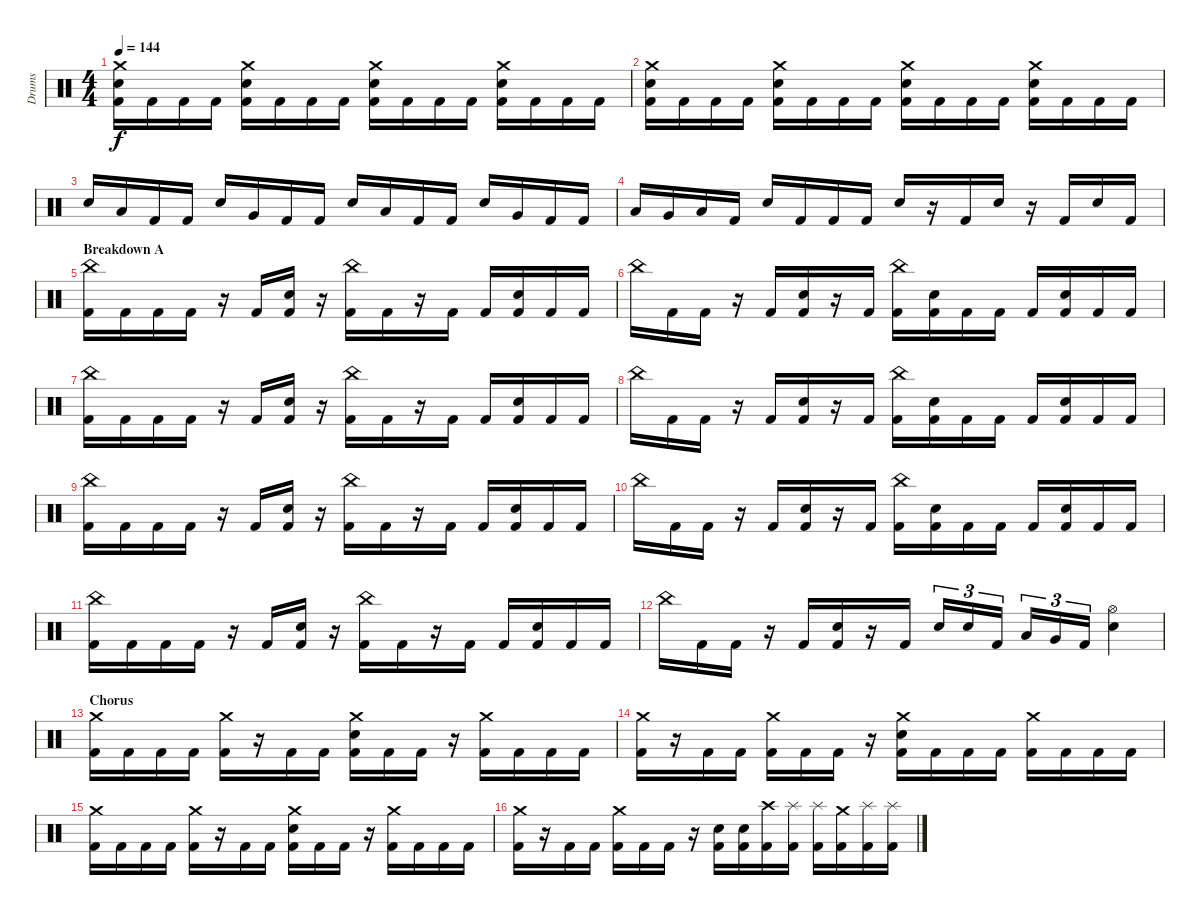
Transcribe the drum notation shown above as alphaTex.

\track ("Drums" "Drums") {instrument percussion}
\staff {score}
\articulation defaults
\ts (4 4)
\tempo 144
\clef neutral
\ks c
("Crash medium (hit)" "Electric Snare (hit)" "Kick (hit) 2").16{dy f} "Kick (hit) 2".16 "Kick (hit) 2".16 "Kick (hit) 2".16 ("Crash medium (hit)" "Electric Snare (hit)" "Kick (hit) 2").16 "Kick (hit) 2".16 "Kick (hit) 2".16 "Kick (hit) 2".16 ("Crash medium (hit)" "Electric Snare (hit)" "Kick (hit) 2").16 "Kick (hit) 2".16 "Kick (hit) 2".16 "Kick (hit) 2".16 ("Crash medium (hit)" "Electric Snare (hit)" "Kick (hit) 2").16 "Kick (hit) 2".16 "Kick (hit) 2".16 "Kick (hit) 2".16 |
("Crash medium (hit)" "Electric Snare (hit)" "Kick (hit) 2").16 "Kick (hit) 2".16 "Kick (hit) 2".16 "Kick (hit) 2".16 ("Crash medium (hit)" "Electric Snare (hit)" "Kick (hit) 2").16 "Kick (hit) 2".16 "Kick (hit) 2".16 "Kick (hit) 2".16 ("Crash medium (hit)" "Electric Snare (hit)" "Kick (hit) 2").16 "Kick (hit) 2".16 "Kick (hit) 2".16 "Kick (hit) 2".16 ("Crash medium (hit)" "Electric Snare (hit)" "Kick (hit) 2").16 "Kick (hit) 2".16 "Kick (hit) 2".16 "Kick (hit) 2".16 |
"Electric Snare (hit)".16 "Low Tom (hit)".16 "Kick (hit) 2".16 "Kick (hit) 2".16 "Electric Snare (hit)".16 "Very Low Tom (hit)".16 "Kick (hit) 2".16 "Kick (hit) 2".16 "Electric Snare (hit)".16 "Low Tom (hit)".16 "Kick (hit) 2".16 "Kick (hit) 2".16 "Electric Snare (hit)".16 "Very Low Tom (hit)".16 "Kick (hit) 2".16 "Kick (hit) 2".16 |
"Low Tom (hit)".16 "Very Low Tom (hit)".16 "Low Floor Tom (hit)".16 "Kick (hit) 2".16 "Electric Snare (hit)".16 "Kick (hit) 2".16 "Kick (hit) 2".16 "Kick (hit) 2".16 "Electric Snare (hit)".16 r.16 "Kick (hit) 2".16 "Electric Snare (hit)".16 r.16 "Kick (hit) 2".16 "Electric Snare (hit)".16 "Kick (hit) 2".16 |
\section ("" "Breakdown A")
("China (hit)" "Kick (hit) 2").16 "Kick (hit) 2".16 "Kick (hit) 2".16 "Kick (hit) 2".16 r.16 "Kick (hit) 2".16 ("Electric Snare (hit)" "Kick (hit) 2").16 r.16 ("China (hit)" "Kick (hit) 2").16 "Kick (hit) 2".16 r.16 "Kick (hit) 2".16 "Kick (hit) 2".16 ("Electric Snare (hit)" "Kick (hit) 2").16 "Kick (hit) 2".16 "Kick (hit) 2".16 |
"China (hit)".16 "Kick (hit) 2".16 "Kick (hit) 2".16 r.16 "Kick (hit) 2".16 ("Electric Snare (hit)" "Kick (hit) 2").16 r.16 "Kick (hit) 2".16 ("China (hit)" "Kick (hit) 2").16 ("Electric Snare (hit)" "Kick (hit) 2").16 "Kick (hit) 2".16 "Kick (hit) 2".16 "Kick (hit) 2".16 ("Electric Snare (hit)" "Kick (hit) 2").16 "Kick (hit) 2".16 "Kick (hit) 2".16 |
("China (hit)" "Kick (hit) 2").16 "Kick (hit) 2".16 "Kick (hit) 2".16 "Kick (hit) 2".16 r.16 "Kick (hit) 2".16 ("Electric Snare (hit)" "Kick (hit) 2").16 r.16 ("China (hit)" "Kick (hit) 2").16 "Kick (hit) 2".16 r.16 "Kick (hit) 2".16 "Kick (hit) 2".16 ("Electric Snare (hit)" "Kick (hit) 2").16 "Kick (hit) 2".16 "Kick (hit) 2".16 |
"China (hit)".16 "Kick (hit) 2".16 "Kick (hit) 2".16 r.16 "Kick (hit) 2".16 ("Electric Snare (hit)" "Kick (hit) 2").16 r.16 "Kick (hit) 2".16 ("China (hit)" "Kick (hit) 2").16 ("Electric Snare (hit)" "Kick (hit) 2").16 "Kick (hit) 2".16 "Kick (hit) 2".16 "Kick (hit) 2".16 ("Electric Snare (hit)" "Kick (hit) 2").16 "Kick (hit) 2".16 "Kick (hit) 2".16 |
("China (hit)" "Kick (hit) 2").16 "Kick (hit) 2".16 "Kick (hit) 2".16 "Kick (hit) 2".16 r.16 "Kick (hit) 2".16 ("Electric Snare (hit)" "Kick (hit) 2").16 r.16 ("China (hit)" "Kick (hit) 2").16 "Kick (hit) 2".16 r.16 "Kick (hit) 2".16 "Kick (hit) 2".16 ("Electric Snare (hit)" "Kick (hit) 2").16 "Kick (hit) 2".16 "Kick (hit) 2".16 |
"China (hit)".16 "Kick (hit) 2".16 "Kick (hit) 2".16 r.16 "Kick (hit) 2".16 ("Electric Snare (hit)" "Kick (hit) 2").16 r.16 "Kick (hit) 2".16 ("China (hit)" "Kick (hit) 2").16 ("Electric Snare (hit)" "Kick (hit) 2").16 "Kick (hit) 2".16 "Kick (hit) 2".16 "Kick (hit) 2".16 ("Electric Snare (hit)" "Kick (hit) 2").16 "Kick (hit) 2".16 "Kick (hit) 2".16 |
("China (hit)" "Kick (hit) 2").16 "Kick (hit) 2".16 "Kick (hit) 2".16 "Kick (hit) 2".16 r.16 "Kick (hit) 2".16 ("Electric Snare (hit)" "Kick (hit) 2").16 r.16 ("China (hit)" "Kick (hit) 2").16 "Kick (hit) 2".16 r.16 "Kick (hit) 2".16 "Kick (hit) 2".16 ("Electric Snare (hit)" "Kick (hit) 2").16 "Kick (hit) 2".16 "Kick (hit) 2".16 |
"China (hit)".16 "Kick (hit) 2".16 "Kick (hit) 2".16 r.16 "Kick (hit) 2".16 ("Electric Snare (hit)" "Kick (hit) 2").16 r.16 "Kick (hit) 2".16 "Electric Snare (hit)".16{tu (3 2)} "Electric Snare (hit)".16{tu (3 2)} "Kick (hit) 2".16{tu (3 2)} "Low Tom (hit)".16{tu (3 2)} "Very Low Tom (hit)".16{tu (3 2)} "Kick (hit) 2".16{tu (3 2)} ("Hi-Hat (open)" "Electric Snare (hit)").4 |
\section ("" "Chorus")
("Crash medium (hit)" "Kick (hit) 2").16 "Kick (hit) 2".16 "Kick (hit) 2".16 "Kick (hit) 2".16 ("Crash medium (hit)" "Kick (hit) 2").16 r.16 "Kick (hit) 2".16 "Kick (hit) 2".16 ("Crash medium (hit)" "Electric Snare (hit)" "Kick (hit) 2").16 "Kick (hit) 2".16 "Kick (hit) 2".16 r.16 ("Crash medium (hit)" "Kick (hit) 2").16 "Kick (hit) 2".16 "Kick (hit) 2".16 "Kick (hit) 2".16 |
("Crash medium (hit)" "Kick (hit) 2").16 r.16 "Kick (hit) 2".16 "Kick (hit) 2".16 ("Crash medium (hit)" "Kick (hit) 2").16 "Kick (hit) 2".16 "Kick (hit) 2".16 r.16 ("Crash medium (hit)" "Electric Snare (hit)" "Kick (hit) 2").16 "Kick (hit) 2".16 "Kick (hit) 2".16 "Kick (hit) 2".16 ("Crash medium (hit)" "Kick (hit) 2").16 "Kick (hit) 2".16 "Kick (hit) 2".16 "Kick (hit) 2".16 |
("Crash medium (hit)" "Kick (hit) 2").16 "Kick (hit) 2".16 "Kick (hit) 2".16 "Kick (hit) 2".16 ("Crash medium (hit)" "Kick (hit) 2").16 r.16 "Kick (hit) 2".16 "Kick (hit) 2".16 ("Crash medium (hit)" "Electric Snare (hit)" "Kick (hit) 2").16 "Kick (hit) 2".16 "Kick (hit) 2".16 r.16 ("Crash medium (hit)" "Kick (hit) 2").16 "Kick (hit) 2".16 "Kick (hit) 2".16 "Kick (hit) 2".16 |
("Crash medium (hit)" "Kick (hit) 2").16 r.16 "Kick (hit) 2".16 "Kick (hit) 2".16 ("Crash medium (hit)" "Kick (hit) 2").16 "Kick (hit) 2".16 "Kick (hit) 2".16 r.16 ("Electric Snare (hit)" "Kick (hit) 2").16 ("Electric Snare (hit)" "Kick (hit) 2").16 ("Crash high (hit)" "Kick (hit) 2").16 ("Splash (hit)" "Kick (hit) 2").16 ("Splash (hit)" "Kick (hit) 2").16 ("Crash medium (hit)" "Kick (hit) 2").16 ("Splash (hit)" "Kick (hit) 2").16 ("Splash (hit)" "Kick (hit) 2").16
